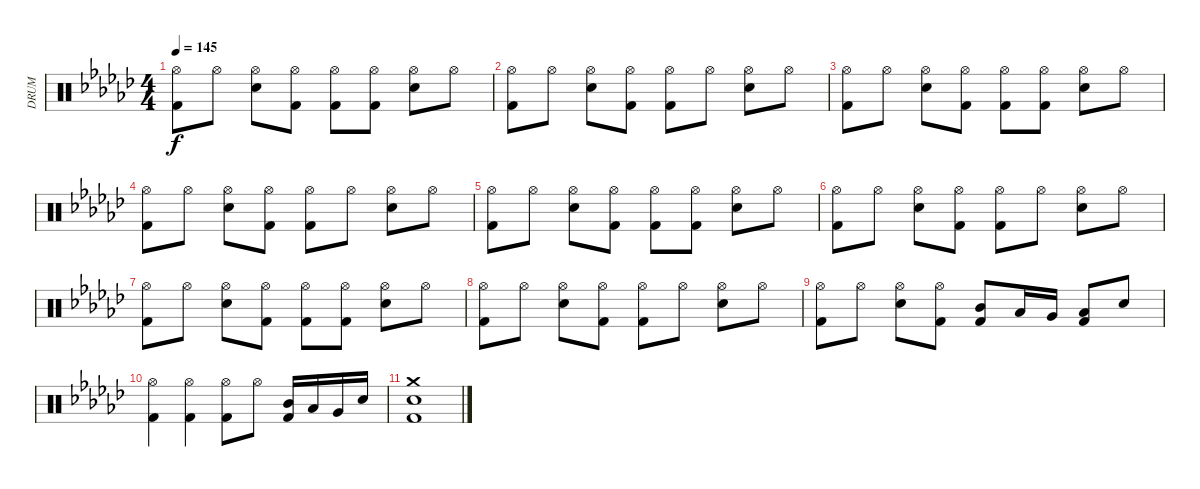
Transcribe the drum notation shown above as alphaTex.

\track ("DRUM" "DRUM") {instrument percussion}
\staff {score}
\articulation defaults
\ts (4 4)
\tempo 145
\clef neutral
\ks ebminor
("Hi-Hat (open)" "Kick (hit) 2").8{dy f} "Hi-Hat (open)".8 ("Hi-Hat (open)" "Electric Snare (hit)").8 ("Hi-Hat (open)" "Kick (hit) 2").8 ("Hi-Hat (open)" "Kick (hit) 2").8 ("Hi-Hat (open)" "Kick (hit) 2").8 ("Hi-Hat (open)" "Electric Snare (hit)").8 "Hi-Hat (open)".8 |
("Hi-Hat (open)" "Kick (hit) 2").8 "Hi-Hat (open)".8 ("Hi-Hat (open)" "Electric Snare (hit)").8 ("Hi-Hat (open)" "Kick (hit) 2").8 ("Hi-Hat (open)" "Kick (hit) 2").8 "Hi-Hat (open)".8 ("Hi-Hat (open)" "Electric Snare (hit)").8 "Hi-Hat (open)".8 |
("Hi-Hat (open)" "Kick (hit) 2").8 "Hi-Hat (open)".8 ("Hi-Hat (open)" "Electric Snare (hit)").8 ("Hi-Hat (open)" "Kick (hit) 2").8 ("Hi-Hat (open)" "Kick (hit) 2").8 ("Hi-Hat (open)" "Kick (hit) 2").8 ("Hi-Hat (open)" "Electric Snare (hit)").8 "Hi-Hat (open)".8 |
("Hi-Hat (open)" "Kick (hit) 2").8 "Hi-Hat (open)".8 ("Hi-Hat (open)" "Electric Snare (hit)").8 ("Hi-Hat (open)" "Kick (hit) 2").8 ("Hi-Hat (open)" "Kick (hit) 2").8 "Hi-Hat (open)".8 ("Hi-Hat (open)" "Electric Snare (hit)").8 "Hi-Hat (open)".8 |
("Hi-Hat (open)" "Kick (hit) 2").8 "Hi-Hat (open)".8 ("Hi-Hat (open)" "Electric Snare (hit)").8 ("Hi-Hat (open)" "Kick (hit) 2").8 ("Hi-Hat (open)" "Kick (hit) 2").8 ("Hi-Hat (open)" "Kick (hit) 2").8 ("Hi-Hat (open)" "Electric Snare (hit)").8 "Hi-Hat (open)".8 |
("Hi-Hat (open)" "Kick (hit) 2").8 "Hi-Hat (open)".8 ("Hi-Hat (open)" "Electric Snare (hit)").8 ("Hi-Hat (open)" "Kick (hit) 2").8 ("Hi-Hat (open)" "Kick (hit) 2").8 "Hi-Hat (open)".8 ("Hi-Hat (open)" "Electric Snare (hit)").8 "Hi-Hat (open)".8 |
("Hi-Hat (open)" "Kick (hit) 2").8 "Hi-Hat (open)".8 ("Hi-Hat (open)" "Electric Snare (hit)").8 ("Hi-Hat (open)" "Kick (hit) 2").8 ("Hi-Hat (open)" "Kick (hit) 2").8 ("Hi-Hat (open)" "Kick (hit) 2").8 ("Hi-Hat (open)" "Electric Snare (hit)").8 "Hi-Hat (open)".8 |
("Hi-Hat (open)" "Kick (hit) 2").8 "Hi-Hat (open)".8 ("Hi-Hat (open)" "Electric Snare (hit)").8 ("Hi-Hat (open)" "Kick (hit) 2").8 ("Hi-Hat (open)" "Kick (hit) 2").8 "Hi-Hat (open)".8 ("Hi-Hat (open)" "Electric Snare (hit)").8 "Hi-Hat (open)".8 |
("Hi-Hat (open)" "Kick (hit) 2").8 "Hi-Hat (open)".8 ("Hi-Hat (open)" "Electric Snare (hit)").8 ("Hi-Hat (open)" "Kick (hit) 2").8 ("Mid Tom (hit)" "Kick (hit) 2").8 "Low Tom (hit)".16 "Very Low Tom (hit)".16 ("Low Floor Tom (hit)" "Kick (hit) 2").8 "Electric Snare (hit)".8 |
("Hi-Hat (open)" "Kick (hit) 2").4 ("Hi-Hat (open)" "Kick (hit) 2").4 ("Hi-Hat (open)" "Kick (hit) 2").8 "Hi-Hat (open)".8 ("Mid Tom (hit)" "Kick (hit) 2").16 "Low Tom (hit)".16 "Very Low Tom (hit)".16 "Electric Snare (hit)".16 |
("Crash medium (hit)" "Electric Snare (hit)" "Kick (hit) 2").1
